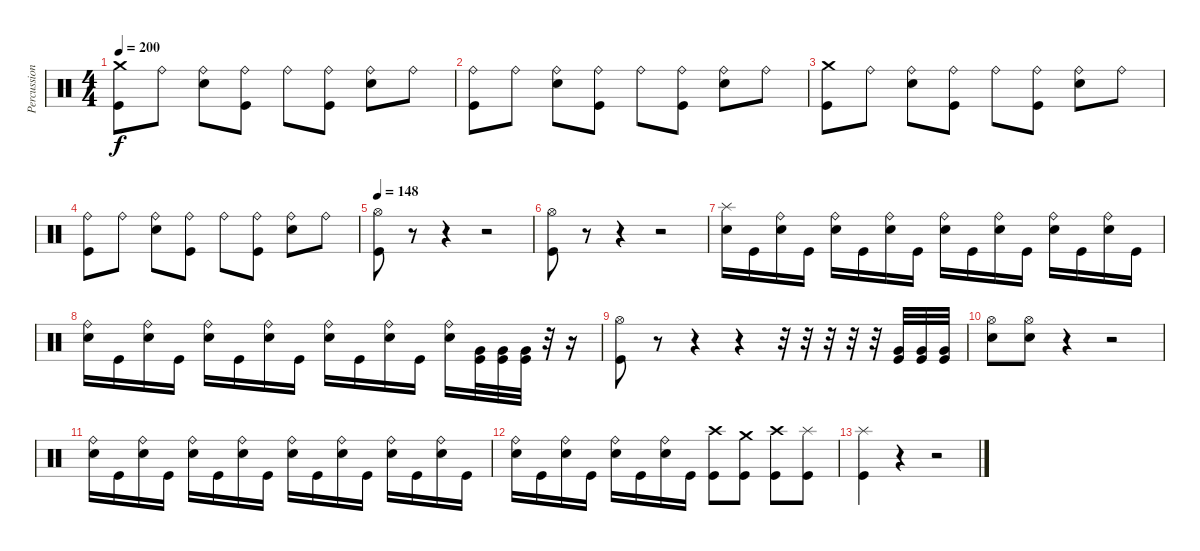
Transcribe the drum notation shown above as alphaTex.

\track ("Percussions" "Percussion") {instrument percussion}
\staff {score}
\articulation defaults
\ts (4 4)
\tempo 200
\clef neutral
\ks c
("Kick (hit)" "Crash medium (hit)").8{dy f} "Ride (bell)".8 ("Electric Snare (hit)" "Ride (bell)").8 ("Kick (hit)" "Ride (bell)").8 "Ride (bell)".8 ("Kick (hit)" "Ride (bell)").8 ("Electric Snare (hit)" "Ride (bell)").8 "Ride (bell)".8 |
("Kick (hit)" "Ride (bell)").8 "Ride (bell)".8 ("Electric Snare (hit)" "Ride (bell)").8 ("Kick (hit)" "Ride (bell)").8 "Ride (bell)".8 ("Kick (hit)" "Ride (bell)").8 ("Electric Snare (hit)" "Ride (bell)").8 "Ride (bell)".8 |
("Kick (hit)" "Crash medium (hit)").8 "Ride (bell)".8 ("Electric Snare (hit)" "Ride (bell)").8 ("Kick (hit)" "Ride (bell)").8 "Ride (bell)".8 ("Kick (hit)" "Ride (bell)").8 ("Electric Snare (hit)" "Ride (bell)").8 "Ride (bell)".8 |
("Kick (hit)" "Ride (bell)").8 "Ride (bell)".8 ("Electric Snare (hit)" "Ride (bell)").8 ("Kick (hit)" "Ride (bell)").8 "Ride (bell)".8 ("Kick (hit)" "Ride (bell)").8 ("Electric Snare (hit)" "Ride (bell)").8 "Ride (bell)".8 |
\tempo 148
("Kick (hit)" "Hi-Hat (open)").8 r.8 r.4 r.2 |
("Kick (hit)" "Hi-Hat (open)").8 r.8 r.4 r.2 |
("Electric Snare (hit)" "Splash (hit)").16 "Kick (hit)".16 ("Electric Snare (hit)" "Ride (bell)").16 "Kick (hit)".16 ("Electric Snare (hit)" "Ride (bell)").16 "Kick (hit)".16 ("Electric Snare (hit)" "Ride (bell)").16 "Kick (hit)".16 ("Electric Snare (hit)" "Ride (bell)").16 "Kick (hit)".16 ("Electric Snare (hit)" "Ride (bell)").16 "Kick (hit)".16 ("Electric Snare (hit)" "Ride (bell)").16 "Kick (hit)".16 ("Electric Snare (hit)" "Ride (bell)").16 "Kick (hit)".16 |
("Electric Snare (hit)" "Ride (bell)").16 "Kick (hit)".16 ("Electric Snare (hit)" "Ride (bell)").16 "Kick (hit)".16 ("Electric Snare (hit)" "Ride (bell)").16 "Kick (hit)".16 ("Electric Snare (hit)" "Ride (bell)").16 "Kick (hit)".16 ("Electric Snare (hit)" "Ride (bell)").16 "Kick (hit)".16 ("Electric Snare (hit)" "Ride (bell)").16 "Kick (hit)".16 ("Electric Snare (hit)" "Ride (bell)").16 ("Kick (hit)" "Very Low Tom (hit)").32 ("Kick (hit)" "Very Low Tom (hit)").32 ("Kick (hit)" "Very Low Tom (hit)").32 r.32 r.16 |
("Kick (hit)" "Hi-Hat (open)").8 r.8 r.4 r.4 r.32 r.32 r.32 r.32 r.32 ("Kick (hit)" "Very Low Tom (hit)").32 ("Kick (hit)" "Very Low Tom (hit)").32 ("Kick (hit)" "Very Low Tom (hit)").32 |
("Electric Snare (hit)" "Hi-Hat (open)").8 ("Electric Snare (hit)" "Hi-Hat (open)").8 r.4 r.2 |
("Electric Snare (hit)" "Ride (bell)").16 "Kick (hit)".16 ("Electric Snare (hit)" "Ride (bell)").16 "Kick (hit)".16 ("Electric Snare (hit)" "Ride (bell)").16 "Kick (hit)".16 ("Electric Snare (hit)" "Ride (bell)").16 "Kick (hit)".16 ("Electric Snare (hit)" "Ride (bell)").16 "Kick (hit)".16 ("Electric Snare (hit)" "Ride (bell)").16 "Kick (hit)".16 ("Electric Snare (hit)" "Ride (bell)").16 "Kick (hit)".16 ("Electric Snare (hit)" "Ride (bell)").16 "Kick (hit)".16 |
("Electric Snare (hit)" "Ride (bell)").16 "Kick (hit)".16 ("Electric Snare (hit)" "Ride (bell)").16 "Kick (hit)".16 ("Electric Snare (hit)" "Ride (bell)").16 "Kick (hit)".16 ("Electric Snare (hit)" "Ride (bell)").16 "Kick (hit)".16 ("Kick (hit)" "Crash high (hit)").8 ("Kick (hit)" "Crash medium (hit)").8 ("Kick (hit)" "Crash high (hit)").8 ("Kick (hit)" "Splash (hit)").8 |
("Kick (hit)" "Splash (hit)").4 r.4 r.2
